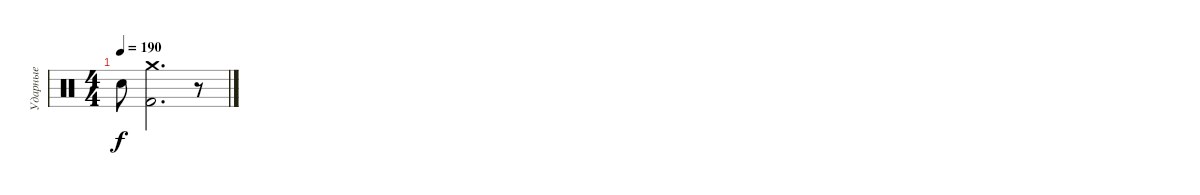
\track ("Ударные" "Ударные") {instrument percussion}
\staff {score}
\articulation defaults
\ts (4 4)
\tempo 190
\clef neutral
\ks c "Snare (hit)"{t}.8{dy f}
("Crash medium (hit)" "Kick (hit) 2").2{d} r.8
